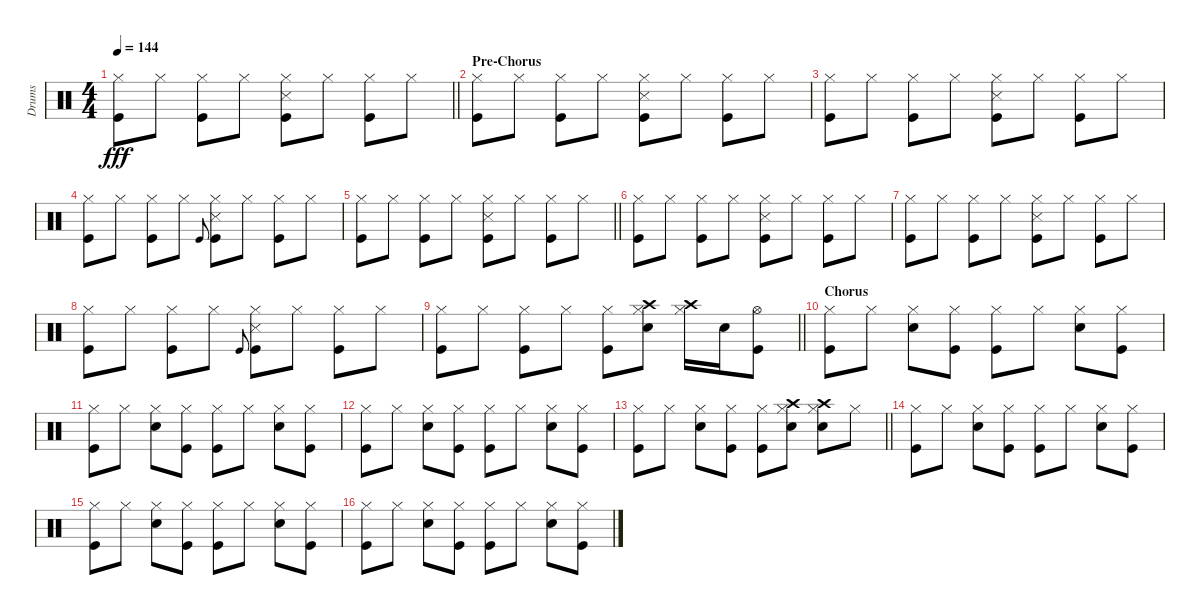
\track ("Drums" "Drums") {instrument percussion}
\staff {score}
\articulation defaults
\ts (4 4)
\tempo 144
\clef neutral
\barLineRight lightlight
\ks c
("Hi-Hat (closed)" "Kick (hit)").8{dy fff} "Hi-Hat (closed)".8 ("Hi-Hat (closed)" "Kick (hit)").8 "Hi-Hat (closed)".8 ("Hi-Hat (closed)" "Kick (hit)" "Snare (side stick) 3").8 "Hi-Hat (closed)".8 ("Hi-Hat (closed)" "Kick (hit)").8 "Hi-Hat (closed)".8 |
\section ("" "Pre-Chorus")
("Hi-Hat (closed)" "Kick (hit)").8 "Hi-Hat (closed)".8 ("Hi-Hat (closed)" "Kick (hit)").8 "Hi-Hat (closed)".8 ("Hi-Hat (closed)" "Kick (hit)" "Snare (side stick) 3").8 "Hi-Hat (closed)".8 ("Hi-Hat (closed)" "Kick (hit)").8 "Hi-Hat (closed)".8 |
("Hi-Hat (closed)" "Kick (hit)").8 "Hi-Hat (closed)".8 ("Hi-Hat (closed)" "Kick (hit)").8 "Hi-Hat (closed)".8 ("Hi-Hat (closed)" "Kick (hit)" "Snare (side stick) 3").8 "Hi-Hat (closed)".8 ("Hi-Hat (closed)" "Kick (hit)").8 "Hi-Hat (closed)".8 |
("Hi-Hat (closed)" "Kick (hit)").8 "Hi-Hat (closed)".8 ("Hi-Hat (closed)" "Kick (hit)").8 "Hi-Hat (closed)".8 "Kick (hit)".8{gr onbeat} ("Hi-Hat (closed)" "Kick (hit)" "Snare (side stick) 3").8 "Hi-Hat (closed)".8 ("Hi-Hat (closed)" "Kick (hit)").8 "Hi-Hat (closed)".8 |
\barLineRight lightlight
("Hi-Hat (closed)" "Kick (hit)").8 "Hi-Hat (closed)".8 ("Hi-Hat (closed)" "Kick (hit)").8 "Hi-Hat (closed)".8 ("Hi-Hat (closed)" "Kick (hit)" "Snare (side stick) 3").8 "Hi-Hat (closed)".8 ("Hi-Hat (closed)" "Kick (hit)").8 "Hi-Hat (closed)".8 |
("Hi-Hat (closed)" "Kick (hit)").8 "Hi-Hat (closed)".8 ("Hi-Hat (closed)" "Kick (hit)").8 "Hi-Hat (closed)".8 ("Hi-Hat (closed)" "Kick (hit)" "Snare (side stick) 3").8 "Hi-Hat (closed)".8 ("Hi-Hat (closed)" "Kick (hit)").8 "Hi-Hat (closed)".8 |
("Hi-Hat (closed)" "Kick (hit)").8 "Hi-Hat (closed)".8 ("Hi-Hat (closed)" "Kick (hit)").8 "Hi-Hat (closed)".8 ("Hi-Hat (closed)" "Kick (hit)" "Snare (side stick) 3").8 "Hi-Hat (closed)".8 ("Hi-Hat (closed)" "Kick (hit)").8 "Hi-Hat (closed)".8 |
("Hi-Hat (closed)" "Kick (hit)").8 "Hi-Hat (closed)".8 ("Hi-Hat (closed)" "Kick (hit)").8 "Hi-Hat (closed)".8 "Kick (hit)".8{gr onbeat} ("Hi-Hat (closed)" "Kick (hit)" "Snare (side stick) 3").8 "Hi-Hat (closed)".8 ("Hi-Hat (closed)" "Kick (hit)").8 "Hi-Hat (closed)".8 |
\barLineRight lightlight
("Hi-Hat (closed)" "Kick (hit)").8 "Hi-Hat (closed)".8 ("Hi-Hat (closed)" "Kick (hit)").8 "Hi-Hat (closed)".8 ("Hi-Hat (closed)" "Kick (hit)").8 ("Hi-Hat (closed)" "Crash high (hit)" "Snare (hit) 2").8 ("Hi-Hat (closed)" "Crash high (hit)").16 "Snare (hit) 2".16 ("Hi-Hat (open)" "Kick (hit)").8 |
\section ("" "Chorus")
("Hi-Hat (closed)" "Kick (hit)").8 "Hi-Hat (closed)".8 ("Snare (hit) 2" "Hi-Hat (closed)").8 ("Kick (hit)" "Hi-Hat (closed)").8 ("Kick (hit)" "Hi-Hat (closed)").8 "Hi-Hat (closed)".8 ("Snare (hit) 2" "Hi-Hat (closed)").8 ("Hi-Hat (closed)" "Kick (hit)").8 |
("Hi-Hat (closed)" "Kick (hit)").8 "Hi-Hat (closed)".8 ("Snare (hit) 2" "Hi-Hat (closed)").8 ("Kick (hit)" "Hi-Hat (closed)").8 ("Kick (hit)" "Hi-Hat (closed)").8 "Hi-Hat (closed)".8 ("Snare (hit) 2" "Hi-Hat (closed)").8 ("Hi-Hat (closed)" "Kick (hit)").8 |
("Hi-Hat (closed)" "Kick (hit)").8 "Hi-Hat (closed)".8 ("Snare (hit) 2" "Hi-Hat (closed)").8 ("Kick (hit)" "Hi-Hat (closed)").8 ("Hi-Hat (closed)" "Kick (hit)").8 "Hi-Hat (closed)".8 ("Snare (hit) 2" "Hi-Hat (closed)").8 ("Hi-Hat (closed)" "Kick (hit)").8 |
\barLineRight lightlight
("Hi-Hat (closed)" "Kick (hit)").8 "Hi-Hat (closed)".8 ("Snare (hit) 2" "Hi-Hat (closed)").8 ("Kick (hit)" "Hi-Hat (closed)").8 ("Kick (hit)" "Hi-Hat (closed)").8 ("Hi-Hat (closed)" "Crash high (hit)" "Snare (hit) 2").8 ("Hi-Hat (closed)" "Crash high (hit)" "Snare (hit) 2").8 "Hi-Hat (closed)".8 |
("Hi-Hat (closed)" "Kick (hit)").8 "Hi-Hat (closed)".8 ("Snare (hit) 2" "Hi-Hat (closed)").8 ("Kick (hit)" "Hi-Hat (closed)").8 ("Kick (hit)" "Hi-Hat (closed)").8 "Hi-Hat (closed)".8 ("Snare (hit) 2" "Hi-Hat (closed)").8 ("Hi-Hat (closed)" "Kick (hit)").8 |
("Hi-Hat (closed)" "Kick (hit)").8 "Hi-Hat (closed)".8 ("Snare (hit) 2" "Hi-Hat (closed)").8 ("Kick (hit)" "Hi-Hat (closed)").8 ("Kick (hit)" "Hi-Hat (closed)").8 "Hi-Hat (closed)".8 ("Snare (hit) 2" "Hi-Hat (closed)").8 ("Hi-Hat (closed)" "Kick (hit)").8 |
("Hi-Hat (closed)" "Kick (hit)").8 "Hi-Hat (closed)".8 ("Snare (hit) 2" "Hi-Hat (closed)").8 ("Kick (hit)" "Hi-Hat (closed)").8 ("Hi-Hat (closed)" "Kick (hit)").8 "Hi-Hat (closed)".8 ("Snare (hit) 2" "Hi-Hat (closed)").8 ("Hi-Hat (closed)" "Kick (hit)").8
